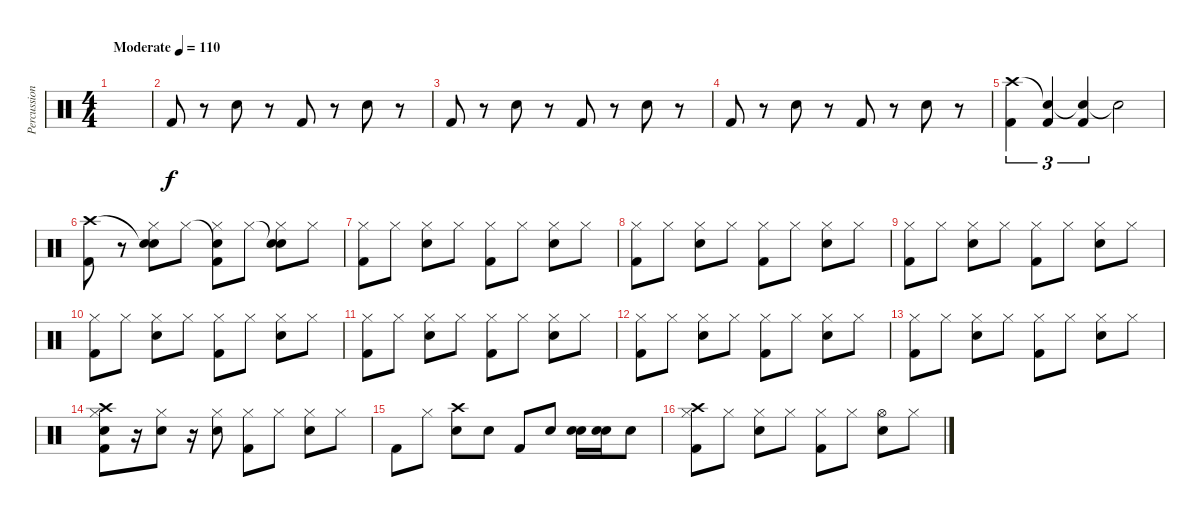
\track ("Percussion" "Percussion") {instrument percussion}
\staff {score}
\articulation defaults
\ts (4 4)
\tempo (110 "Moderate")
\clef neutral
\ks c
|
"Kick (hit) 2".8 r.8 "Snare (hit) 2".8 r.8 "Kick (hit) 2".8 r.8 "Snare (hit) 2".8 r.8 |
"Kick (hit) 2".8 r.8 "Snare (hit) 2".8 r.8 "Kick (hit) 2".8 r.8 "Snare (hit) 2".8 r.8 |
"Kick (hit) 2".8 r.8 "Snare (hit) 2".8 r.8 "Kick (hit) 2".8 r.8 "Snare (hit) 2".8 r.8 |
("Crash high (hit)" "Kick (hit) 2").4{tu (3 2)} ("Snare (hit)"{t} "Kick (hit) 2").4{tu (3 2)} ("Snare (hit)"{t} "Kick (hit) 2").4{tu (3 2)} "Snare (hit)"{t}.2 |
("Crash high (hit)" "Kick (hit) 2").8 r.8 ("Snare (hit)"{t} "Snare (hit) 2" "Hi-Hat (closed)").8 "Hi-Hat (closed)".8 ("Snare (hit)"{t} "Hi-Hat (closed)" "Kick (hit) 2").8 "Hi-Hat (closed)".8 ("Snare (hit)"{t} "Snare (hit) 2" "Hi-Hat (closed)").8 "Hi-Hat (closed)".8 |
("Hi-Hat (closed)" "Kick (hit) 2").8 "Hi-Hat (closed)".8 ("Snare (hit) 2" "Hi-Hat (closed)").8 "Hi-Hat (closed)".8 ("Hi-Hat (closed)" "Kick (hit) 2").8 "Hi-Hat (closed)".8 ("Snare (hit) 2" "Hi-Hat (closed)").8 "Hi-Hat (closed)".8 |
("Hi-Hat (closed)" "Kick (hit) 2").8 "Hi-Hat (closed)".8 ("Snare (hit) 2" "Hi-Hat (closed)").8 "Hi-Hat (closed)".8 ("Hi-Hat (closed)" "Kick (hit) 2").8 "Hi-Hat (closed)".8 ("Snare (hit) 2" "Hi-Hat (closed)").8 "Hi-Hat (closed)".8 |
("Hi-Hat (closed)" "Kick (hit) 2").8 "Hi-Hat (closed)".8 ("Snare (hit) 2" "Hi-Hat (closed)").8 "Hi-Hat (closed)".8 ("Hi-Hat (closed)" "Kick (hit) 2").8 "Hi-Hat (closed)".8 ("Snare (hit) 2" "Hi-Hat (closed)").8 "Hi-Hat (closed)".8 |
("Hi-Hat (closed)" "Kick (hit) 2").8 "Hi-Hat (closed)".8 ("Snare (hit) 2" "Hi-Hat (closed)").8 "Hi-Hat (closed)".8 ("Hi-Hat (closed)" "Kick (hit) 2").8 "Hi-Hat (closed)".8 ("Snare (hit) 2" "Hi-Hat (closed)").8 "Hi-Hat (closed)".8 |
("Hi-Hat (closed)" "Kick (hit) 2").8 "Hi-Hat (closed)".8 ("Snare (hit) 2" "Hi-Hat (closed)").8 "Hi-Hat (closed)".8 ("Hi-Hat (closed)" "Kick (hit) 2").8 "Hi-Hat (closed)".8 ("Snare (hit) 2" "Hi-Hat (closed)").8 "Hi-Hat (closed)".8 |
("Hi-Hat (closed)" "Kick (hit) 2").8 "Hi-Hat (closed)".8 ("Snare (hit) 2" "Hi-Hat (closed)").8 "Hi-Hat (closed)".8 ("Hi-Hat (closed)" "Kick (hit) 2").8 "Hi-Hat (closed)".8 ("Snare (hit) 2" "Hi-Hat (closed)").8 "Hi-Hat (closed)".8 |
("Hi-Hat (closed)" "Kick (hit) 2").8 "Hi-Hat (closed)".8 ("Snare (hit) 2" "Hi-Hat (closed)").8 "Hi-Hat (closed)".8 ("Hi-Hat (closed)" "Kick (hit) 2").8 "Hi-Hat (closed)".8 ("Snare (hit) 2" "Hi-Hat (closed)").8 "Hi-Hat (closed)".8 |
("Crash high (hit)" "Snare (hit) 2" "Hi-Hat (closed)" "Kick (hit) 2").8 r.16 ("Snare (hit) 2" "Hi-Hat (closed)").8 r.16 ("Snare (hit) 2" "Hi-Hat (closed)").8 ("Hi-Hat (closed)" "Kick (hit) 2").8 "Hi-Hat (closed)".8 ("Snare (hit) 2" "Hi-Hat (closed)").8 "Hi-Hat (closed)".8 |
"Kick (hit) 2".8 "Hi-Hat (closed)".8 ("Crash high (hit)" "Snare (hit) 2").8 "Snare (hit) 2".8 "Kick (hit) 2".8 "Snare (hit) 2".8 ("Snare (hit) 2" "Snare (hit) 2").16 ("Snare (hit) 2" "Snare (hit) 2").16 "Snare (hit) 2".8 |
("Crash high (hit)" "Hi-Hat (closed)" "Kick (hit) 2").8 "Hi-Hat (closed)".8 ("Snare (hit) 2" "Hi-Hat (closed)").8 "Hi-Hat (closed)".8 ("Hi-Hat (closed)" "Kick (hit) 2").8 "Hi-Hat (closed)".8 ("Snare (hit) 2" "Hi-Hat (open)").8 "Hi-Hat (closed)".8
